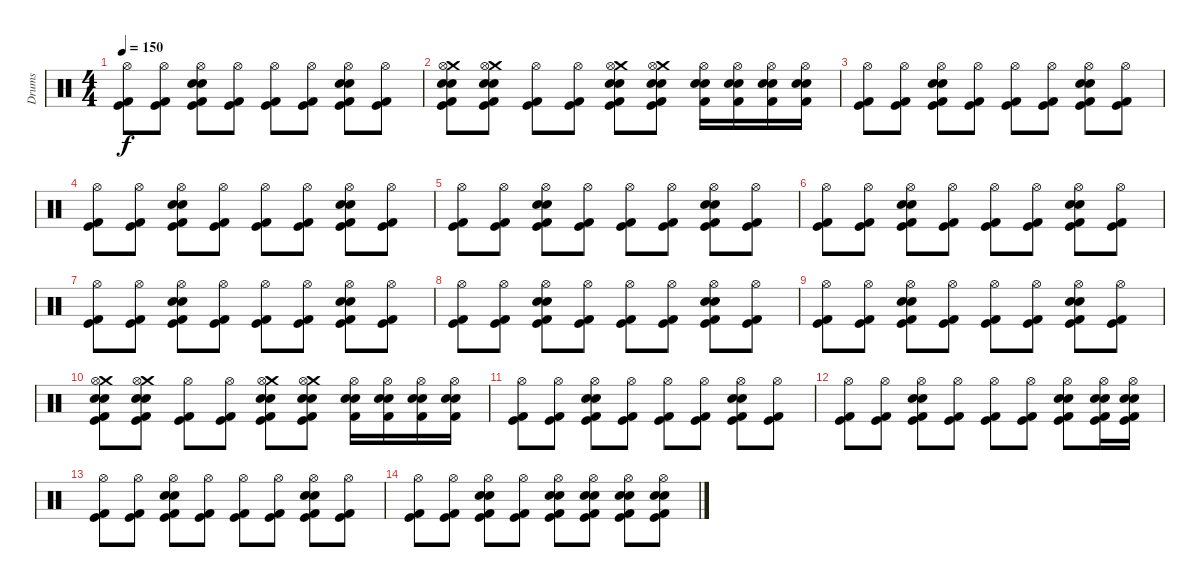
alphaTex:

\track ("Drums" "Drums") {instrument percussion}
\staff {score}
\articulation defaults
\ts (4 4)
\tempo 150
\clef neutral
\ks c
("Hi-Hat (open)" "Kick (hit)" "Kick (hit) 2").8{dy f} ("Hi-Hat (open)" "Kick (hit)" "Kick (hit) 2").8 ("Snare (hit) 2" "Electric Snare (hit)" "Hi-Hat (open)" "Kick (hit)" "Kick (hit) 2").8 ("Hi-Hat (open)" "Kick (hit)" "Kick (hit) 2").8 ("Hi-Hat (open)" "Kick (hit)" "Kick (hit) 2").8 ("Hi-Hat (open)" "Kick (hit)" "Kick (hit) 2").8 ("Snare (hit) 2" "Electric Snare (hit)" "Hi-Hat (open)" "Kick (hit)" "Kick (hit) 2").8 ("Hi-Hat (open)" "Kick (hit)" "Kick (hit) 2").8 |
("Crash medium (hit)" "Snare (hit) 2" "Electric Snare (hit)" "Hi-Hat (open)" "Kick (hit)" "Kick (hit) 2").8 ("Crash medium (hit)" "Snare (hit) 2" "Electric Snare (hit)" "Hi-Hat (open)" "Kick (hit)" "Kick (hit) 2").8 ("Hi-Hat (open)" "Kick (hit)" "Kick (hit) 2").8 ("Hi-Hat (open)" "Kick (hit)" "Kick (hit) 2").8 ("Crash medium (hit)" "Snare (hit) 2" "Electric Snare (hit)" "Hi-Hat (open)" "Kick (hit)" "Kick (hit) 2").8 ("Crash medium (hit)" "Snare (hit) 2" "Electric Snare (hit)" "Hi-Hat (open)" "Kick (hit)" "Kick (hit) 2").8 ("Hi-Hat (open)" "Kick (hit) 2" "Electric Snare (hit)" "Snare (hit) 2").16 ("Hi-Hat (open)" "Kick (hit) 2" "Electric Snare (hit)" "Snare (hit) 2").16 ("Hi-Hat (open)" "Kick (hit) 2" "Electric Snare (hit)" "Snare (hit) 2").16 ("Hi-Hat (open)" "Kick (hit) 2" "Electric Snare (hit)" "Snare (hit) 2").16 |
("Hi-Hat (open)" "Kick (hit)" "Kick (hit) 2").8 ("Hi-Hat (open)" "Kick (hit)" "Kick (hit) 2").8 ("Snare (hit) 2" "Electric Snare (hit)" "Hi-Hat (open)" "Kick (hit)" "Kick (hit) 2").8 ("Hi-Hat (open)" "Kick (hit)" "Kick (hit) 2").8 ("Hi-Hat (open)" "Kick (hit)" "Kick (hit) 2").8 ("Hi-Hat (open)" "Kick (hit)" "Kick (hit) 2").8 ("Snare (hit) 2" "Electric Snare (hit)" "Hi-Hat (open)" "Kick (hit)" "Kick (hit) 2").8 ("Hi-Hat (open)" "Kick (hit)" "Kick (hit) 2").8 |
("Hi-Hat (open)" "Kick (hit)" "Kick (hit) 2").8 ("Hi-Hat (open)" "Kick (hit)" "Kick (hit) 2").8 ("Snare (hit) 2" "Electric Snare (hit)" "Hi-Hat (open)" "Kick (hit)" "Kick (hit) 2").8 ("Hi-Hat (open)" "Kick (hit)" "Kick (hit) 2").8 ("Hi-Hat (open)" "Kick (hit)" "Kick (hit) 2").8 ("Hi-Hat (open)" "Kick (hit)" "Kick (hit) 2").8 ("Snare (hit) 2" "Electric Snare (hit)" "Hi-Hat (open)" "Kick (hit)" "Kick (hit) 2").8 ("Hi-Hat (open)" "Kick (hit)" "Kick (hit) 2").8 |
("Hi-Hat (open)" "Kick (hit)" "Kick (hit) 2").8 ("Hi-Hat (open)" "Kick (hit)" "Kick (hit) 2").8 ("Snare (hit) 2" "Electric Snare (hit)" "Hi-Hat (open)" "Kick (hit)" "Kick (hit) 2").8 ("Hi-Hat (open)" "Kick (hit)" "Kick (hit) 2").8 ("Hi-Hat (open)" "Kick (hit)" "Kick (hit) 2").8 ("Hi-Hat (open)" "Kick (hit)" "Kick (hit) 2").8 ("Snare (hit) 2" "Electric Snare (hit)" "Hi-Hat (open)" "Kick (hit)" "Kick (hit) 2").8 ("Hi-Hat (open)" "Kick (hit)" "Kick (hit) 2").8 |
("Hi-Hat (open)" "Kick (hit)" "Kick (hit) 2").8 ("Hi-Hat (open)" "Kick (hit)" "Kick (hit) 2").8 ("Snare (hit) 2" "Electric Snare (hit)" "Hi-Hat (open)" "Kick (hit)" "Kick (hit) 2").8 ("Hi-Hat (open)" "Kick (hit)" "Kick (hit) 2").8 ("Hi-Hat (open)" "Kick (hit)" "Kick (hit) 2").8 ("Hi-Hat (open)" "Kick (hit)" "Kick (hit) 2").8 ("Snare (hit) 2" "Electric Snare (hit)" "Hi-Hat (open)" "Kick (hit)" "Kick (hit) 2").8 ("Hi-Hat (open)" "Kick (hit)" "Kick (hit) 2").8 |
("Hi-Hat (open)" "Kick (hit)" "Kick (hit) 2").8 ("Hi-Hat (open)" "Kick (hit)" "Kick (hit) 2").8 ("Snare (hit) 2" "Electric Snare (hit)" "Hi-Hat (open)" "Kick (hit)" "Kick (hit) 2").8 ("Hi-Hat (open)" "Kick (hit)" "Kick (hit) 2").8 ("Hi-Hat (open)" "Kick (hit)" "Kick (hit) 2").8 ("Hi-Hat (open)" "Kick (hit)" "Kick (hit) 2").8 ("Snare (hit) 2" "Electric Snare (hit)" "Hi-Hat (open)" "Kick (hit)" "Kick (hit) 2").8 ("Hi-Hat (open)" "Kick (hit)" "Kick (hit) 2").8 |
("Hi-Hat (open)" "Kick (hit)" "Kick (hit) 2").8 ("Hi-Hat (open)" "Kick (hit)" "Kick (hit) 2").8 ("Snare (hit) 2" "Electric Snare (hit)" "Hi-Hat (open)" "Kick (hit)" "Kick (hit) 2").8 ("Hi-Hat (open)" "Kick (hit)" "Kick (hit) 2").8 ("Hi-Hat (open)" "Kick (hit)" "Kick (hit) 2").8 ("Hi-Hat (open)" "Kick (hit)" "Kick (hit) 2").8 ("Snare (hit) 2" "Electric Snare (hit)" "Hi-Hat (open)" "Kick (hit)" "Kick (hit) 2").8 ("Hi-Hat (open)" "Kick (hit)" "Kick (hit) 2").8 |
("Hi-Hat (open)" "Kick (hit)" "Kick (hit) 2").8 ("Hi-Hat (open)" "Kick (hit)" "Kick (hit) 2").8 ("Snare (hit) 2" "Electric Snare (hit)" "Hi-Hat (open)" "Kick (hit)" "Kick (hit) 2").8 ("Hi-Hat (open)" "Kick (hit)" "Kick (hit) 2").8 ("Hi-Hat (open)" "Kick (hit)" "Kick (hit) 2").8 ("Hi-Hat (open)" "Kick (hit)" "Kick (hit) 2").8 ("Snare (hit) 2" "Electric Snare (hit)" "Hi-Hat (open)" "Kick (hit)" "Kick (hit) 2").8 ("Hi-Hat (open)" "Kick (hit)" "Kick (hit) 2").8 |
("Crash medium (hit)" "Snare (hit) 2" "Electric Snare (hit)" "Hi-Hat (open)" "Kick (hit)" "Kick (hit) 2").8 ("Crash medium (hit)" "Snare (hit) 2" "Electric Snare (hit)" "Hi-Hat (open)" "Kick (hit)" "Kick (hit) 2").8 ("Hi-Hat (open)" "Kick (hit)" "Kick (hit) 2").8 ("Hi-Hat (open)" "Kick (hit)" "Kick (hit) 2").8 ("Crash medium (hit)" "Snare (hit) 2" "Electric Snare (hit)" "Hi-Hat (open)" "Kick (hit)" "Kick (hit) 2").8 ("Crash medium (hit)" "Snare (hit) 2" "Electric Snare (hit)" "Hi-Hat (open)" "Kick (hit)" "Kick (hit) 2").8 ("Hi-Hat (open)" "Kick (hit) 2" "Electric Snare (hit)" "Snare (hit) 2").16 ("Hi-Hat (open)" "Kick (hit) 2" "Electric Snare (hit)" "Snare (hit) 2").16 ("Hi-Hat (open)" "Kick (hit) 2" "Electric Snare (hit)" "Snare (hit) 2").16 ("Hi-Hat (open)" "Kick (hit) 2" "Electric Snare (hit)" "Snare (hit) 2").16 |
("Hi-Hat (open)" "Kick (hit)" "Kick (hit) 2").8 ("Hi-Hat (open)" "Kick (hit)" "Kick (hit) 2").8 ("Snare (hit) 2" "Electric Snare (hit)" "Hi-Hat (open)" "Kick (hit)" "Kick (hit) 2").8 ("Hi-Hat (open)" "Kick (hit)" "Kick (hit) 2").8 ("Hi-Hat (open)" "Kick (hit)" "Kick (hit) 2").8 ("Hi-Hat (open)" "Kick (hit)" "Kick (hit) 2").8 ("Snare (hit) 2" "Electric Snare (hit)" "Hi-Hat (open)" "Kick (hit)" "Kick (hit) 2").8 ("Hi-Hat (open)" "Kick (hit)" "Kick (hit) 2").8 |
("Hi-Hat (open)" "Kick (hit)" "Kick (hit) 2").8 ("Hi-Hat (open)" "Kick (hit)" "Kick (hit) 2").8 ("Snare (hit) 2" "Electric Snare (hit)" "Hi-Hat (open)" "Kick (hit)" "Kick (hit) 2").8 ("Hi-Hat (open)" "Kick (hit)" "Kick (hit) 2").8 ("Hi-Hat (open)" "Kick (hit)" "Kick (hit) 2").8 ("Hi-Hat (open)" "Kick (hit)" "Kick (hit) 2").8 ("Snare (hit) 2" "Electric Snare (hit)" "Hi-Hat (open)" "Kick (hit)" "Kick (hit) 2").8 ("Snare (hit) 2" "Electric Snare (hit)" "Hi-Hat (open)" "Kick (hit)" "Kick (hit) 2").16 ("Snare (hit) 2" "Electric Snare (hit)" "Hi-Hat (open)" "Kick (hit)" "Kick (hit) 2").16 |
("Hi-Hat (open)" "Kick (hit)" "Kick (hit) 2").8 ("Hi-Hat (open)" "Kick (hit)" "Kick (hit) 2").8 ("Snare (hit) 2" "Electric Snare (hit)" "Hi-Hat (open)" "Kick (hit)" "Kick (hit) 2").8 ("Hi-Hat (open)" "Kick (hit)" "Kick (hit) 2").8 ("Hi-Hat (open)" "Kick (hit)" "Kick (hit) 2").8 ("Hi-Hat (open)" "Kick (hit)" "Kick (hit) 2").8 ("Snare (hit) 2" "Electric Snare (hit)" "Hi-Hat (open)" "Kick (hit)" "Kick (hit) 2").8 ("Hi-Hat (open)" "Kick (hit)" "Kick (hit) 2").8 |
("Hi-Hat (open)" "Kick (hit)" "Kick (hit) 2").8 ("Hi-Hat (open)" "Kick (hit)" "Kick (hit) 2").8 ("Snare (hit) 2" "Electric Snare (hit)" "Hi-Hat (open)" "Kick (hit)" "Kick (hit) 2").8 ("Hi-Hat (open)" "Kick (hit)" "Kick (hit) 2").8 ("Snare (hit) 2" "Electric Snare (hit)" "Hi-Hat (open)" "Kick (hit)" "Kick (hit) 2").8 ("Electric Snare (hit)" "Snare (hit) 2" "Hi-Hat (open)" "Kick (hit)" "Kick (hit) 2").8 ("Snare (hit) 2" "Electric Snare (hit)" "Hi-Hat (open)" "Kick (hit)" "Kick (hit) 2").8 ("Snare (hit) 2" "Electric Snare (hit)" "Hi-Hat (open)" "Kick (hit)" "Kick (hit) 2").8
